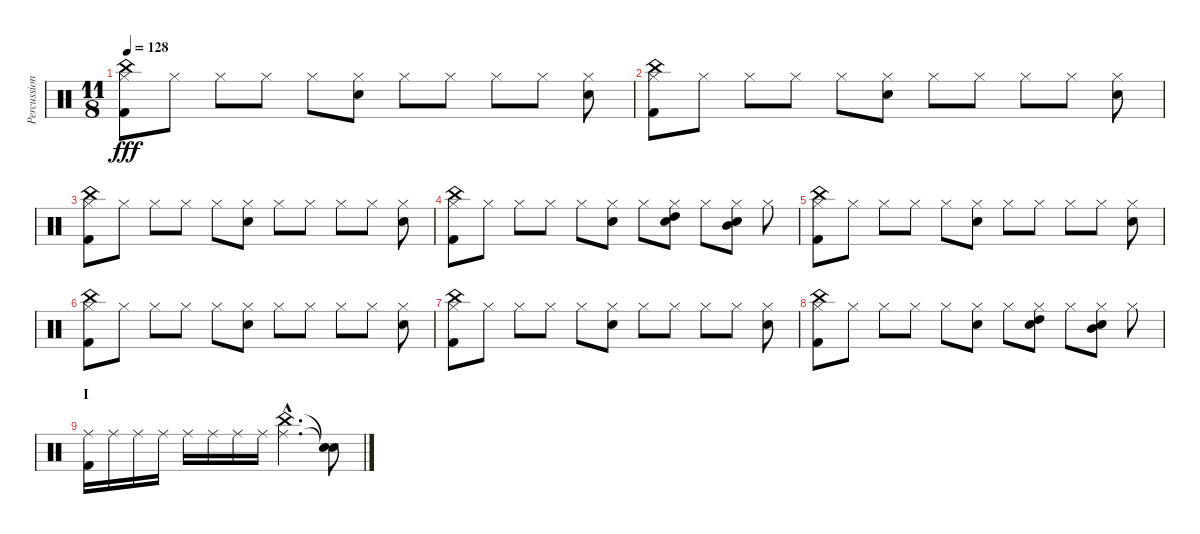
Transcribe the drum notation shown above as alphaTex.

\track ("Percussions" "Percussion") {instrument percussion}
\staff {score}
\articulation defaults
\ts (11 8)
\tempo 128
\clef neutral
\ks c
("Hi-Hat (closed)" "China (hit)" "Kick (hit) 2").8{dy fff} "Hi-Hat (closed)".8 "Hi-Hat (closed)".8 "Hi-Hat (closed)".8 "Hi-Hat (closed)".8 ("Hi-Hat (closed)" "Electric Snare (hit)").8 "Hi-Hat (closed)".8 "Hi-Hat (closed)".8 "Hi-Hat (closed)".8 "Hi-Hat (closed)".8 ("Hi-Hat (closed)" "Electric Snare (hit)").8 |
("Hi-Hat (closed)" "China (hit)" "Kick (hit) 2").8 "Hi-Hat (closed)".8 "Hi-Hat (closed)".8 "Hi-Hat (closed)".8 "Hi-Hat (closed)".8 ("Hi-Hat (closed)" "Electric Snare (hit)").8 "Hi-Hat (closed)".8 "Hi-Hat (closed)".8 "Hi-Hat (closed)".8 "Hi-Hat (closed)".8 ("Hi-Hat (closed)" "Electric Snare (hit)").8 |
("Hi-Hat (closed)" "China (hit)" "Kick (hit) 2").8 "Hi-Hat (closed)".8 "Hi-Hat (closed)".8 "Hi-Hat (closed)".8 "Hi-Hat (closed)".8 ("Hi-Hat (closed)" "Electric Snare (hit)").8 "Hi-Hat (closed)".8 "Hi-Hat (closed)".8 "Hi-Hat (closed)".8 "Hi-Hat (closed)".8 ("Hi-Hat (closed)" "Electric Snare (hit)").8 |
("Hi-Hat (closed)" "China (hit)" "Kick (hit) 2").8 "Hi-Hat (closed)".8 "Hi-Hat (closed)".8 "Hi-Hat (closed)".8 "Hi-Hat (closed)".8 ("Hi-Hat (closed)" "Electric Snare (hit)").8 "Hi-Hat (closed)".8 ("Hi-Hat (closed)" "High Tom (hit)" "Electric Snare (hit)").8 "Hi-Hat (closed)".8 ("Hi-Hat (closed)" "Mid Tom (hit)" "Electric Snare (hit)").8 "Hi-Hat (closed)".8 |
("Hi-Hat (closed)" "China (hit)" "Kick (hit) 2").8 "Hi-Hat (closed)".8 "Hi-Hat (closed)".8 "Hi-Hat (closed)".8 "Hi-Hat (closed)".8 ("Hi-Hat (closed)" "Electric Snare (hit)").8 "Hi-Hat (closed)".8 "Hi-Hat (closed)".8 "Hi-Hat (closed)".8 "Hi-Hat (closed)".8 ("Hi-Hat (closed)" "Electric Snare (hit)").8 |
("Hi-Hat (closed)" "China (hit)" "Kick (hit) 2").8 "Hi-Hat (closed)".8 "Hi-Hat (closed)".8 "Hi-Hat (closed)".8 "Hi-Hat (closed)".8 ("Hi-Hat (closed)" "Electric Snare (hit)").8 "Hi-Hat (closed)".8 "Hi-Hat (closed)".8 "Hi-Hat (closed)".8 "Hi-Hat (closed)".8 ("Hi-Hat (closed)" "Electric Snare (hit)").8 |
("Hi-Hat (closed)" "China (hit)" "Kick (hit) 2").8 "Hi-Hat (closed)".8 "Hi-Hat (closed)".8 "Hi-Hat (closed)".8 "Hi-Hat (closed)".8 ("Hi-Hat (closed)" "Electric Snare (hit)").8 "Hi-Hat (closed)".8 "Hi-Hat (closed)".8 "Hi-Hat (closed)".8 "Hi-Hat (closed)".8 ("Hi-Hat (closed)" "Electric Snare (hit)").8 |
("Hi-Hat (closed)" "China (hit)" "Kick (hit) 2").8 "Hi-Hat (closed)".8 "Hi-Hat (closed)".8 "Hi-Hat (closed)".8 "Hi-Hat (closed)".8 ("Hi-Hat (closed)" "Electric Snare (hit)").8 "Hi-Hat (closed)".8 ("Hi-Hat (closed)" "High Tom (hit)" "Electric Snare (hit)").8 "Hi-Hat (closed)".8 ("Hi-Hat (closed)" "Mid Tom (hit)" "Electric Snare (hit)").8 "Hi-Hat (closed)".8 |
\section ("" "I")
("Ride (middle)" "Kick (hit) 2").16 "Ride (middle)".16 "Ride (middle)".16 "Ride (middle)".16 "Ride (middle)".16 "Ride (middle)".16 "Ride (middle)".16 "Ride (middle)".16 ("China (hit)"{hac} "Ride (middle)"{hac}).2{d} ("Snare (hit)"{t} "Snare (hit)"{t}).8
